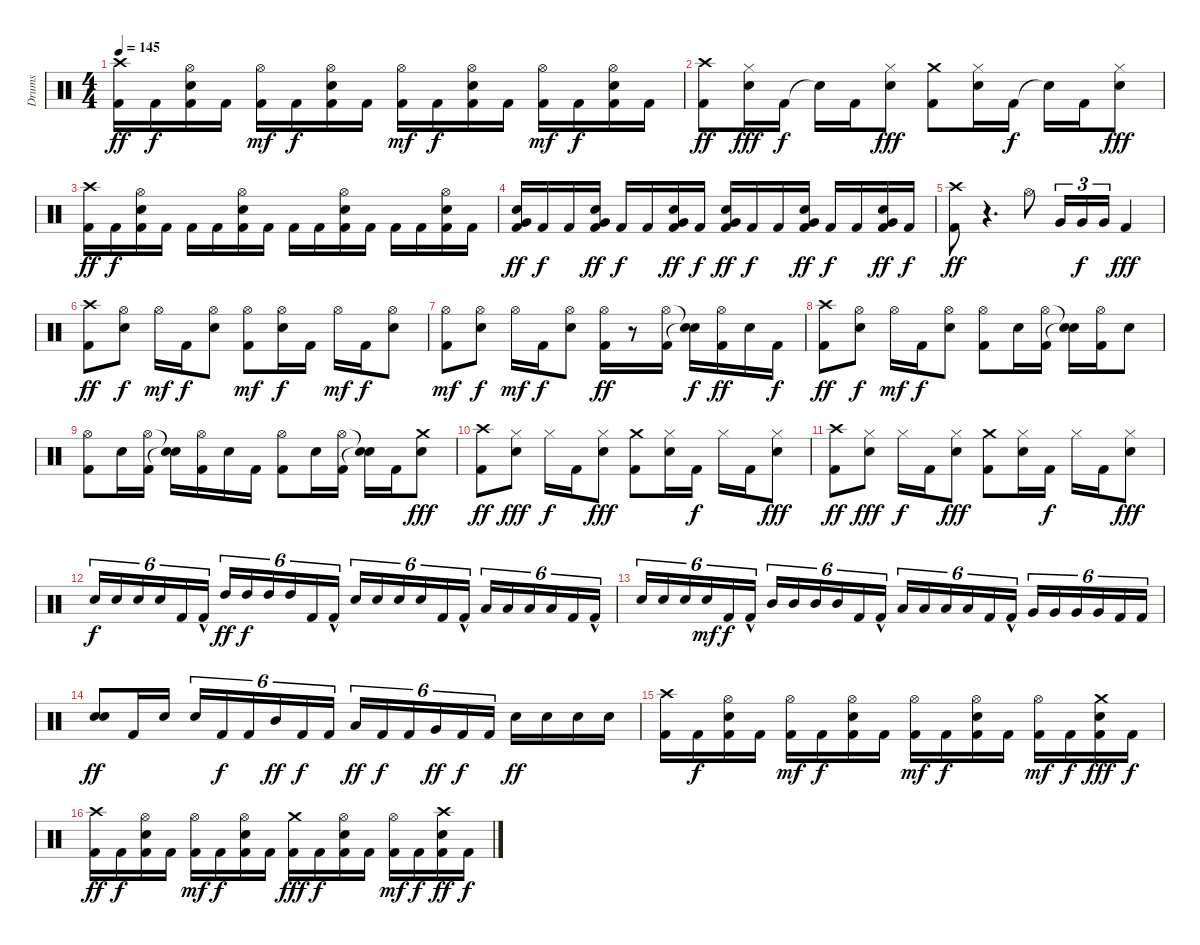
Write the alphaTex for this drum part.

\track ("Drums" "Drums") {instrument percussion}
\staff {score}
\articulation defaults
\ts (4 4)
\tempo 145
\clef neutral
\ks c
("Crash high (hit)" "Kick (hit) 2").16{dy ff} "Kick (hit) 2".16{dy f} ("Snare (hit) 2" "Hi-Hat (open)" "Kick (hit) 2").16 "Kick (hit) 2".16 ("Hi-Hat (open)" "Kick (hit) 2").16{dy mf} "Kick (hit) 2".16{dy f} ("Snare (hit) 2" "Hi-Hat (open)" "Kick (hit) 2").16 "Kick (hit) 2".16 ("Hi-Hat (open)" "Kick (hit) 2").16{dy mf} "Kick (hit) 2".16{dy f} ("Snare (hit) 2" "Hi-Hat (open)" "Kick (hit) 2").16 "Kick (hit) 2".16 ("Hi-Hat (open)" "Kick (hit) 2").16{dy mf} "Kick (hit) 2".16{dy f} ("Snare (hit) 2" "Hi-Hat (open)" "Kick (hit) 2").16 "Kick (hit) 2".16 |
("Kick (hit) 2" "Crash high (hit)").8{dy ff} ("Snare (hit) 2" "Hi-Hat (closed)").16{dy fff} "Kick (hit) 2".16{dy f} "Snare (hit)"{t}.16 "Kick (hit) 2".16 ("Snare (hit) 2" "Hi-Hat (closed)").8{dy fff} ("Kick (hit) 2" "Crash medium (hit)").8 ("Hi-Hat (closed)" "Snare (hit) 2").16 "Kick (hit) 2".16{dy f} "Snare (hit)"{t}.16 "Kick (hit) 2".16 ("Snare (hit) 2" "Hi-Hat (closed)").8{dy fff} |
("Crash high (hit)" "Kick (hit) 2").16{dy ff} "Kick (hit) 2".16{dy f} ("Snare (hit) 2" "Hi-Hat (open)" "Kick (hit) 2").16 "Kick (hit) 2".16 "Kick (hit) 2".16 "Kick (hit) 2".16 ("Snare (hit) 2" "Hi-Hat (open)" "Kick (hit) 2").16 "Kick (hit) 2".16 "Kick (hit) 2".16 "Kick (hit) 2".16 ("Hi-Hat (open)" "Snare (hit) 2" "Kick (hit) 2").16 "Kick (hit) 2".16 "Kick (hit) 2".16 "Kick (hit) 2".16 ("Hi-Hat (open)" "Snare (hit) 2" "Kick (hit) 2").16 "Kick (hit) 2".16 |
("Very Low Tom (hit)" "Snare (hit) 2" "Kick (hit) 2").16{dy ff} "Kick (hit) 2".16{dy f} "Kick (hit) 2".16 ("Very Low Tom (hit)" "Snare (hit) 2" "Kick (hit) 2").16{dy ff} "Kick (hit) 2".16{dy f} "Kick (hit) 2".16 ("Very Low Tom (hit)" "Snare (hit) 2" "Kick (hit) 2").16{dy ff} "Kick (hit) 2".16{dy f} ("Very Low Tom (hit)" "Snare (hit) 2" "Kick (hit) 2").16{dy ff} "Kick (hit) 2".16{dy f} "Kick (hit) 2".16 ("Very Low Tom (hit)" "Snare (hit) 2" "Kick (hit) 2").16{dy ff} "Kick (hit) 2".16{dy f} "Kick (hit) 2".16 ("Snare (hit) 2" "Very Low Tom (hit)" "Kick (hit) 2").16{dy ff} "Kick (hit) 2".16{dy f} |
("Crash high (hit)" "Kick (hit) 2").8{dy ff} r.4{d} "Hi-Hat (open)".8 "Very Low Tom (hit)".16{tu (3 2)} "Very Low Tom (hit)".16{tu (3 2) dy f} "Very Low Tom (hit)".16{tu (3 2)} "Kick (hit) 2".4{dy fff} |
("Kick (hit) 2" "Crash high (hit)").8{dy ff} ("Snare (hit) 2" "Hi-Hat (open)").8{dy f} "Hi-Hat (open)".16{dy mf} "Kick (hit) 2".16{dy f} ("Snare (hit) 2" "Hi-Hat (open)").8 ("Kick (hit) 2" "Hi-Hat (open)").8{dy mf} ("Snare (hit) 2" "Hi-Hat (open)").16{dy f} "Kick (hit) 2".16 "Hi-Hat (open)".16{dy mf} "Kick (hit) 2".16{dy f} ("Snare (hit) 2" "Hi-Hat (open)").8 |
("Kick (hit) 2" "Hi-Hat (open)").8{dy mf} ("Snare (hit) 2" "Hi-Hat (open)").8{dy f} "Hi-Hat (open)".16{dy mf} "Kick (hit) 2".16{dy f} ("Snare (hit) 2" "Hi-Hat (open)").8 ("Kick (hit) 2" "Hi-Hat (open)").16{dy ff} r.8 ("Kick (hit) 2" "Hi-Hat (open)").16 ("Snare (hit)"{t} "Snare (hit)"{t}).16{dy f} ("Kick (hit) 2" "Hi-Hat (open)").16{dy ff} "Snare (hit) 2".16 "Kick (hit) 2".16{dy f} |
("Kick (hit) 2" "Crash high (hit)").8{dy ff} ("Snare (hit) 2" "Hi-Hat (open)").8{dy f} "Hi-Hat (open)".16{dy mf} "Kick (hit) 2".16{dy f} ("Snare (hit) 2" "Hi-Hat (open)").8 ("Kick (hit) 2" "Hi-Hat (open)").8 "Snare (hit) 2".16 ("Kick (hit) 2" "Hi-Hat (open)").16 ("Snare (hit)"{t} "Snare (hit)"{t}).16 ("Kick (hit) 2" "Hi-Hat (open)").16 "Snare (hit) 2".8 |
("Kick (hit) 2" "Hi-Hat (open)").8 "Snare (hit) 2".16 ("Kick (hit) 2" "Hi-Hat (open)").16 ("Snare (hit)"{t} "Snare (hit)"{t}).16 ("Kick (hit) 2" "Hi-Hat (open)").16 "Snare (hit) 2".16 "Kick (hit) 2".16 ("Kick (hit) 2" "Hi-Hat (open)").8 "Snare (hit) 2".16 ("Kick (hit) 2" "Hi-Hat (open)").16 ("Snare (hit)"{t} "Snare (hit)"{t}).16 "Kick (hit) 2".16 ("Snare (hit) 2" "Crash medium (hit)").8{dy fff} |
("Kick (hit) 2" "Crash high (hit)").8{dy ff} ("Snare (hit) 2" "Hi-Hat (closed)").8{dy fff} "Hi-Hat (closed)".16{dy f} "Kick (hit) 2".16 ("Snare (hit) 2" "Hi-Hat (closed)").8{dy fff} ("Kick (hit) 2" "Crash medium (hit)").8 ("Snare (hit) 2" "Hi-Hat (closed)").16 "Kick (hit) 2".16{dy f} "Hi-Hat (closed)".16 "Kick (hit) 2".16 ("Snare (hit) 2" "Hi-Hat (closed)").8{dy fff} |
("Kick (hit) 2" "Crash high (hit)").8{dy ff} ("Snare (hit) 2" "Hi-Hat (closed)").8{dy fff} "Hi-Hat (closed)".16{dy f} "Kick (hit) 2".16 ("Snare (hit) 2" "Hi-Hat (closed)").8{dy fff} ("Kick (hit) 2" "Crash medium (hit)").8 ("Snare (hit) 2" "Hi-Hat (closed)").16 "Kick (hit) 2".16{dy f} "Hi-Hat (closed)".16 "Kick (hit) 2".16 ("Snare (hit) 2" "Hi-Hat (closed)").8{dy fff} |
"Snare (hit) 2".16{tu (6 4) dy f} "Snare (hit) 2".16{tu (6 4)} "Snare (hit) 2".16{tu (6 4)} "Snare (hit) 2".16{tu (6 4)} "Kick (hit) 2".16{tu (6 4)} "Kick (hit) 2"{hac}.16{tu (6 4)} "High Tom (hit)".16{tu (6 4) dy ff} "High Tom (hit)".16{tu (6 4) dy f} "High Tom (hit)".16{tu (6 4)} "High Tom (hit)".16{tu (6 4)} "Kick (hit) 2".16{tu (6 4)} "Kick (hit) 2"{hac}.16{tu (6 4)} "Snare (hit) 2".16{tu (6 4)} "Snare (hit) 2".16{tu (6 4)} "Snare (hit) 2".16{tu (6 4)} "Snare (hit) 2".16{tu (6 4)} "Kick (hit) 2".16{tu (6 4)} "Kick (hit) 2"{hac}.16{tu (6 4)} "Low Tom (hit)".16{tu (6 4)} "Low Tom (hit)".16{tu (6 4)} "Low Tom (hit)".16{tu (6 4)} "Low Tom (hit)".16{tu (6 4)} "Kick (hit) 2".16{tu (6 4)} "Kick (hit) 2"{hac}.16{tu (6 4)} |
"Snare (hit) 2".16{tu (6 4)} "Snare (hit) 2".16{tu (6 4)} "Snare (hit) 2".16{tu (6 4)} "Snare (hit) 2".16{tu (6 4) dy mf} "Kick (hit) 2".16{tu (6 4) dy f} "Kick (hit) 2"{hac}.16{tu (6 4)} "Mid Tom (hit)".16{tu (6 4)} "Mid Tom (hit)".16{tu (6 4)} "Mid Tom (hit)".16{tu (6 4)} "Mid Tom (hit)".16{tu (6 4)} "Kick (hit) 2".16{tu (6 4)} "Kick (hit) 2"{hac}.16{tu (6 4)} "Low Tom (hit)".16{tu (6 4)} "Low Tom (hit)".16{tu (6 4)} "Low Tom (hit)".16{tu (6 4)} "Low Tom (hit)".16{tu (6 4)} "Kick (hit) 2".16{tu (6 4)} "Kick (hit) 2"{hac}.16{tu (6 4)} "Very Low Tom (hit)".16{tu (6 4)} "Very Low Tom (hit)".16{tu (6 4)} "Very Low Tom (hit)".16{tu (6 4)} "Very Low Tom (hit)".16{tu (6 4)} "Kick (hit) 2".16{tu (6 4)} "Kick (hit) 2".16{tu (6 4)} |
("Snare (hit) 2" "Snare (hit) 2").8{dy ff} "Kick (hit) 2".16 "Snare (hit) 2".16 "Snare (hit) 2".16{tu (6 4)} "Kick (hit) 2".16{tu (6 4) dy f} "Kick (hit) 2".16{tu (6 4)} "Mid Tom (hit)".16{tu (6 4) dy ff} "Kick (hit) 2".16{tu (6 4) dy f} "Kick (hit) 2".16{tu (6 4)} "Low Tom (hit)".16{tu (6 4) dy ff} "Kick (hit) 2".16{tu (6 4) dy f} "Kick (hit) 2".16{tu (6 4)} "Very Low Tom (hit)".16{tu (6 4) dy ff} "Kick (hit) 2".16{tu (6 4) dy f} "Kick (hit) 2".16{tu (6 4)} "Snare (hit) 2".16{dy ff} "Snare (hit) 2".16 "Snare (hit) 2".16 "Snare (hit) 2".16 |
("Crash high (hit)" "Kick (hit) 2").16 "Kick (hit) 2".16{dy f} ("Snare (hit) 2" "Hi-Hat (open)" "Kick (hit) 2").16 "Kick (hit) 2".16 ("Hi-Hat (open)" "Kick (hit) 2").16{dy mf} "Kick (hit) 2".16{dy f} ("Snare (hit) 2" "Hi-Hat (open)" "Kick (hit) 2").16 "Kick (hit) 2".16 ("Hi-Hat (open)" "Kick (hit) 2").16{dy mf} "Kick (hit) 2".16{dy f} ("Snare (hit) 2" "Hi-Hat (open)" "Kick (hit) 2").16 "Kick (hit) 2".16 ("Hi-Hat (open)" "Kick (hit) 2").16{dy mf} "Kick (hit) 2".16{dy f} ("Snare (hit) 2" "Crash medium (hit)" "Kick (hit) 2").16{dy fff} "Kick (hit) 2".16{dy f} |
("Crash high (hit)" "Kick (hit) 2").16{dy ff} "Kick (hit) 2".16{dy f} ("Snare (hit) 2" "Hi-Hat (open)" "Kick (hit) 2").16 "Kick (hit) 2".16 ("Hi-Hat (open)" "Kick (hit) 2").16{dy mf} "Kick (hit) 2".16{dy f} ("Snare (hit) 2" "Hi-Hat (open)" "Kick (hit) 2").16 "Kick (hit) 2".16 ("Crash medium (hit)" "Kick (hit) 2").16{dy fff} "Kick (hit) 2".16{dy f} ("Snare (hit) 2" "Hi-Hat (open)" "Kick (hit) 2").16 "Kick (hit) 2".16 ("Hi-Hat (open)" "Kick (hit) 2").16{dy mf} "Kick (hit) 2".16{dy f} ("Snare (hit) 2" "Crash high (hit)" "Kick (hit) 2").16{dy ff} "Kick (hit) 2".16{dy f}
